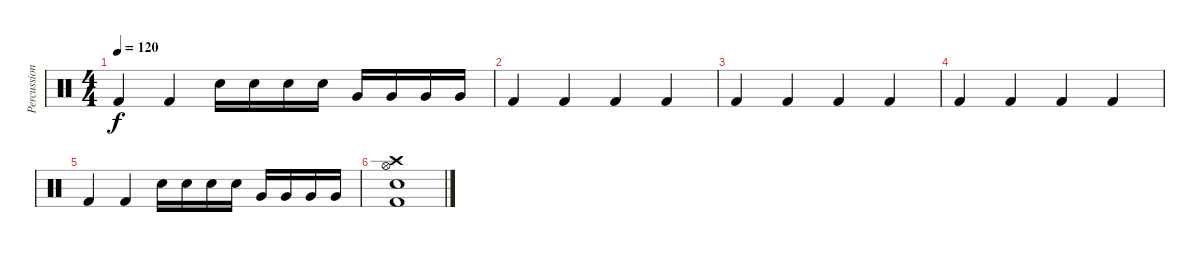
\track ("Percussion" "Percussion") {instrument percussion}
\staff {score}
\articulation defaults
\ts (4 4)
\tempo 120
\clef neutral
\ks c "Kick (hit) 2".4{dy f} "Kick (hit) 2".4 "Snare (hit) 2".16 "Snare (hit) 2".16 "Snare (hit) 2".16 "Snare (hit) 2".16 "Very Low Tom (hit)".16 "Very Low Tom (hit)".16 "Very Low Tom (hit)".16 "Very Low Tom (hit)".16
|
"Kick (hit) 2".4 "Kick (hit) 2".4 "Kick (hit) 2".4 "Kick (hit) 2".4 |
"Kick (hit) 2".4 "Kick (hit) 2".4 "Kick (hit) 2".4 "Kick (hit) 2".4 |
"Kick (hit) 2".4 "Kick (hit) 2".4 "Kick (hit) 2".4 "Kick (hit) 2".4 |
"Kick (hit) 2".4 "Kick (hit) 2".4 "Snare (hit) 2".16 "Snare (hit) 2".16 "Snare (hit) 2".16 "Snare (hit) 2".16 "Very Low Tom (hit)".16 "Very Low Tom (hit)".16 "Very Low Tom (hit)".16 "Very Low Tom (hit)".16 |
("Hi-Hat (open)" "Crash high (hit)" "Kick (hit) 2" "Snare (hit) 2").1
